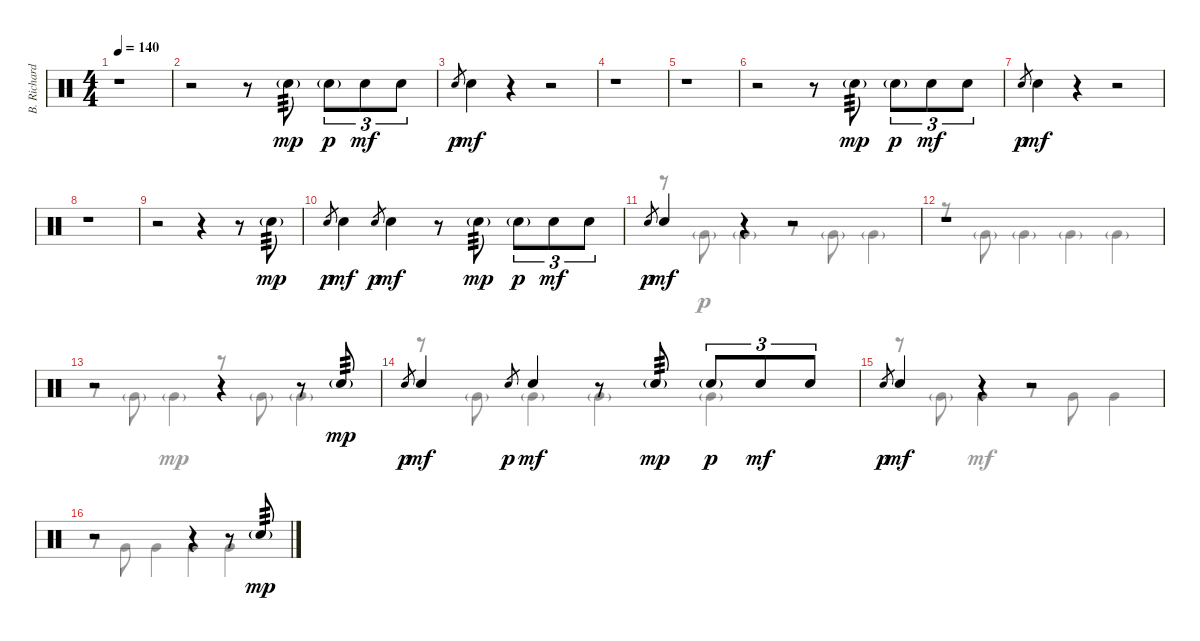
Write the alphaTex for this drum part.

\track ("B. Richardson Drums" "B. Richard") {instrument percussion}
\staff {score}
\articulation defaults
\voice
\ts (4 4)
\tempo 140
\clef neutral
\ks c
r.1{dy mf} |
r.2 r.8 "Snare (hit) 2"{g}.8{tp 3 dy mp} "Snare (hit) 2"{g}.8{tu (3 2) dy p} "Snare (hit) 2".8{tu (3 2) dy mf} "Snare (hit) 2".8{tu (3 2)} |
"Snare (hit) 2".8{gr dy p} "Snare (hit) 2".4{dy mf} r.4 r.2 |
r.1 |
r.1 |
r.2 r.8 "Snare (hit) 2"{g}.8{tp 3 dy mp} "Snare (hit) 2"{g}.8{tu (3 2) dy p} "Snare (hit) 2".8{tu (3 2) dy mf} "Snare (hit) 2".8{tu (3 2)} |
"Snare (hit) 2".8{gr dy p} "Snare (hit) 2".4{dy mf} r.4 r.2 |
r.1 |
r.2 r.4 r.8 "Snare (hit) 2"{g}.8{tp 3 dy mp} |
"Snare (hit) 2".8{gr dy p} "Snare (hit) 2".4{dy mf} "Snare (hit) 2".8{gr dy p} "Snare (hit) 2".4{dy mf} r.8 "Snare (hit) 2"{g}.8{tp 3 dy mp} "Snare (hit) 2"{g}.8{tu (3 2) dy p} "Snare (hit) 2".8{tu (3 2) dy mf} "Snare (hit) 2".8{tu (3 2)} |
"Snare (hit) 2".8{gr dy p} "Snare (hit) 2".4{dy mf} r.4 r.2 |
r.1 |
r.2 r.4 r.8 "Snare (hit) 2"{g}.8{tp 3 dy mp} |
"Snare (hit) 2".8{gr dy p} "Snare (hit) 2".4{dy mf} "Snare (hit) 2".8{gr dy p} "Snare (hit) 2".4{dy mf} r.8 "Snare (hit) 2"{g}.8{tp 3 dy mp} "Snare (hit) 2"{g}.8{tu (3 2) dy p} "Snare (hit) 2".8{tu (3 2) dy mf} "Snare (hit) 2".8{tu (3 2)} |
"Snare (hit) 2".8{gr dy p} "Snare (hit) 2".4{dy mf} r.4 r.2 |
r.2 r.4 r.8 "Snare (hit) 2"{g}.8{tp 3 dy mp}
\voice
\clef neutral
\ottava regular
\simile none
\ks c
|
|
|
|
|
|
|
|
|
|
r.8 "Very Low Tom (hit)"{g}.8{dy p} "Very Low Tom (hit)"{g}.4 r.8 "Very Low Tom (hit)"{g}.8 "Very Low Tom (hit)"{g}.4 |
r.8 "Very Low Tom (hit)"{g}.8 "Very Low Tom (hit)"{g}.4 "Very Low Tom (hit)"{g}.4 "Very Low Tom (hit)"{g}.4 |
r.8 "Very Low Tom (hit)"{g}.8 "Very Low Tom (hit)"{g}.4{dy mp} r.8 "Very Low Tom (hit)"{g}.8 "Very Low Tom (hit)"{g}.4 |
r.8 "Very Low Tom (hit)"{g}.8 "Very Low Tom (hit)"{g}.4 "Very Low Tom (hit)"{g}.4 "Very Low Tom (hit)"{g}.4 |
r.8 "Very Low Tom (hit)"{g}.8 "Very Low Tom (hit)".4{dy mf} r.8 "Very Low Tom (hit)".8 "Very Low Tom (hit)".4 |
r.8 "Very Low Tom (hit)".8 "Very Low Tom (hit)".4 "Very Low Tom (hit)".4 "Very Low Tom (hit)".4
